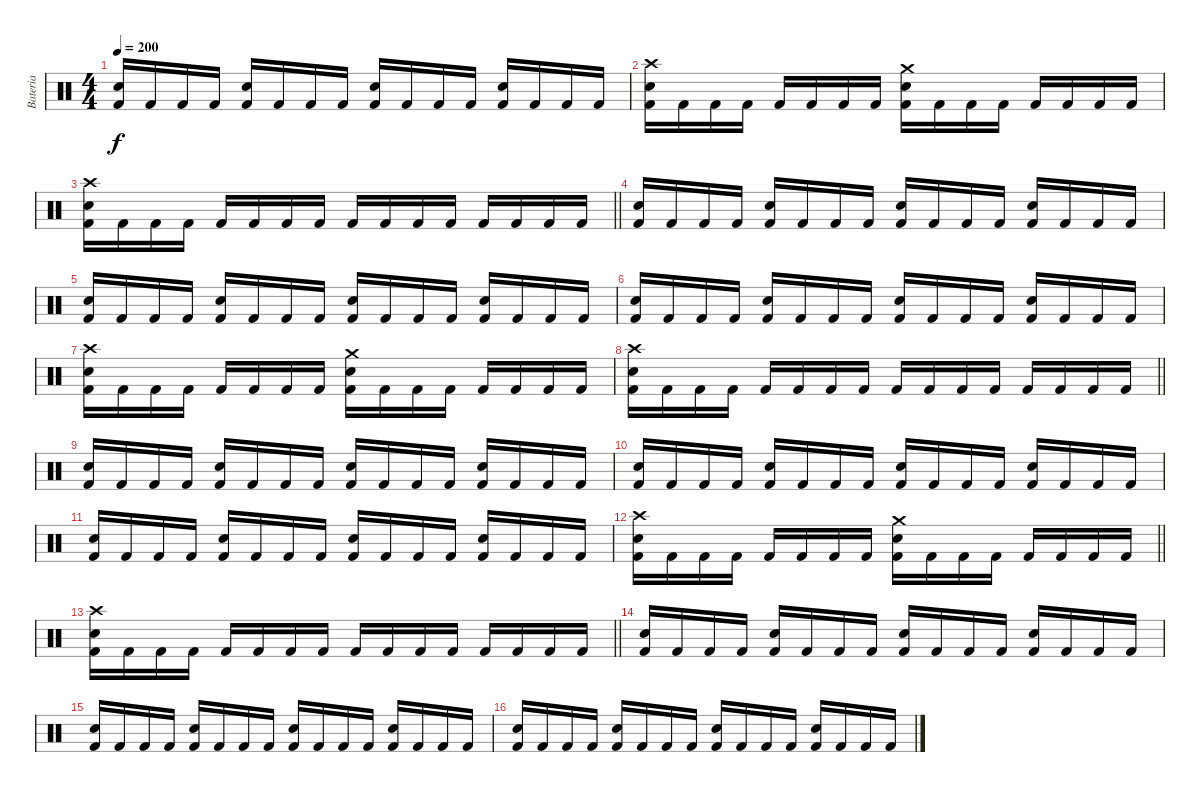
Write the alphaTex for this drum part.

\track ("Bateria" "Bateria") {instrument percussion}
\staff {score}
\articulation defaults
\ts (4 4)
\tempo 200
\clef neutral
\ks c
("Electric Snare (hit)" "Kick (hit) 2").16{dy f} "Kick (hit) 2".16 "Kick (hit) 2".16 "Kick (hit) 2".16 ("Electric Snare (hit)" "Kick (hit) 2").16 "Kick (hit) 2".16 "Kick (hit) 2".16 "Kick (hit) 2".16 ("Electric Snare (hit)" "Kick (hit) 2").16 "Kick (hit) 2".16 "Kick (hit) 2".16 "Kick (hit) 2".16 ("Electric Snare (hit)" "Kick (hit) 2").16 "Kick (hit) 2".16 "Kick (hit) 2".16 "Kick (hit) 2".16 |
("Crash high (hit)" "Electric Snare (hit)" "Kick (hit) 2").16 "Kick (hit) 2".16 "Kick (hit) 2".16 "Kick (hit) 2".16 "Kick (hit) 2".16 "Kick (hit) 2".16 "Kick (hit) 2".16 "Kick (hit) 2".16 ("Crash medium (hit)" "Electric Snare (hit)" "Kick (hit) 2").16 "Kick (hit) 2".16 "Kick (hit) 2".16 "Kick (hit) 2".16 "Kick (hit) 2".16 "Kick (hit) 2".16 "Kick (hit) 2".16 "Kick (hit) 2".16 |
\barLineRight lightlight
("Crash high (hit)" "Electric Snare (hit)" "Kick (hit) 2").16 "Kick (hit) 2".16 "Kick (hit) 2".16 "Kick (hit) 2".16 "Kick (hit) 2".16 "Kick (hit) 2".16 "Kick (hit) 2".16 "Kick (hit) 2".16 "Kick (hit) 2".16 "Kick (hit) 2".16 "Kick (hit) 2".16 "Kick (hit) 2".16 "Kick (hit) 2".16 "Kick (hit) 2".16 "Kick (hit) 2".16 "Kick (hit) 2".16 |
("Electric Snare (hit)" "Kick (hit) 2").16 "Kick (hit) 2".16{volume 8} "Kick (hit) 2".16 "Kick (hit) 2".16 ("Electric Snare (hit)" "Kick (hit) 2").16 "Kick (hit) 2".16 "Kick (hit) 2".16 "Kick (hit) 2".16 ("Electric Snare (hit)" "Kick (hit) 2").16 "Kick (hit) 2".16 "Kick (hit) 2".16 "Kick (hit) 2".16 ("Electric Snare (hit)" "Kick (hit) 2").16 "Kick (hit) 2".16 "Kick (hit) 2".16 "Kick (hit) 2".16 |
("Electric Snare (hit)" "Kick (hit) 2").16 "Kick (hit) 2".16 "Kick (hit) 2".16 "Kick (hit) 2".16 ("Electric Snare (hit)" "Kick (hit) 2").16 "Kick (hit) 2".16 "Kick (hit) 2".16 "Kick (hit) 2".16 ("Electric Snare (hit)" "Kick (hit) 2").16 "Kick (hit) 2".16 "Kick (hit) 2".16 "Kick (hit) 2".16 ("Electric Snare (hit)" "Kick (hit) 2").16 "Kick (hit) 2".16 "Kick (hit) 2".16 "Kick (hit) 2".16 |
("Electric Snare (hit)" "Kick (hit) 2").16 "Kick (hit) 2".16 "Kick (hit) 2".16 "Kick (hit) 2".16 ("Electric Snare (hit)" "Kick (hit) 2").16 "Kick (hit) 2".16 "Kick (hit) 2".16 "Kick (hit) 2".16 ("Electric Snare (hit)" "Kick (hit) 2").16 "Kick (hit) 2".16 "Kick (hit) 2".16 "Kick (hit) 2".16 ("Electric Snare (hit)" "Kick (hit) 2").16 "Kick (hit) 2".16 "Kick (hit) 2".16 "Kick (hit) 2".16 |
("Crash high (hit)" "Electric Snare (hit)" "Kick (hit) 2").16 "Kick (hit) 2".16 "Kick (hit) 2".16 "Kick (hit) 2".16 "Kick (hit) 2".16 "Kick (hit) 2".16 "Kick (hit) 2".16 "Kick (hit) 2".16 ("Crash medium (hit)" "Electric Snare (hit)" "Kick (hit) 2").16 "Kick (hit) 2".16 "Kick (hit) 2".16 "Kick (hit) 2".16 "Kick (hit) 2".16 "Kick (hit) 2".16 "Kick (hit) 2".16 "Kick (hit) 2".16 |
\barLineRight lightlight
("Crash high (hit)" "Electric Snare (hit)" "Kick (hit) 2").16 "Kick (hit) 2".16 "Kick (hit) 2".16{volume 6} "Kick (hit) 2".16 "Kick (hit) 2".16 "Kick (hit) 2".16 "Kick (hit) 2".16 "Kick (hit) 2".16 "Kick (hit) 2".16 "Kick (hit) 2".16 "Kick (hit) 2".16 "Kick (hit) 2".16 "Kick (hit) 2".16 "Kick (hit) 2".16 "Kick (hit) 2".16 "Kick (hit) 2".16 |
("Electric Snare (hit)" "Kick (hit) 2").16 "Kick (hit) 2".16 "Kick (hit) 2".16 "Kick (hit) 2".16 ("Electric Snare (hit)" "Kick (hit) 2").16 "Kick (hit) 2".16 "Kick (hit) 2".16 "Kick (hit) 2".16 ("Electric Snare (hit)" "Kick (hit) 2").16 "Kick (hit) 2".16 "Kick (hit) 2".16 "Kick (hit) 2".16 ("Electric Snare (hit)" "Kick (hit) 2").16 "Kick (hit) 2".16 "Kick (hit) 2".16 "Kick (hit) 2".16 |
("Electric Snare (hit)" "Kick (hit) 2").16 "Kick (hit) 2".16 "Kick (hit) 2".16 "Kick (hit) 2".16 ("Electric Snare (hit)" "Kick (hit) 2").16 "Kick (hit) 2".16 "Kick (hit) 2".16 "Kick (hit) 2".16 ("Electric Snare (hit)" "Kick (hit) 2").16 "Kick (hit) 2".16 "Kick (hit) 2".16 "Kick (hit) 2".16 ("Electric Snare (hit)" "Kick (hit) 2").16 "Kick (hit) 2".16 "Kick (hit) 2".16 "Kick (hit) 2".16 |
("Electric Snare (hit)" "Kick (hit) 2").16 "Kick (hit) 2".16 "Kick (hit) 2".16 "Kick (hit) 2".16 ("Electric Snare (hit)" "Kick (hit) 2").16 "Kick (hit) 2".16 "Kick (hit) 2".16 "Kick (hit) 2".16 ("Electric Snare (hit)" "Kick (hit) 2").16 "Kick (hit) 2".16 "Kick (hit) 2".16 "Kick (hit) 2".16 ("Electric Snare (hit)" "Kick (hit) 2").16 "Kick (hit) 2".16 "Kick (hit) 2".16 "Kick (hit) 2".16 |
\barLineRight lightlight
("Crash high (hit)" "Electric Snare (hit)" "Kick (hit) 2").16 "Kick (hit) 2".16 "Kick (hit) 2".16 "Kick (hit) 2".16 "Kick (hit) 2".16 "Kick (hit) 2".16 "Kick (hit) 2".16 "Kick (hit) 2".16 ("Crash medium (hit)" "Electric Snare (hit)" "Kick (hit) 2").16 "Kick (hit) 2".16 "Kick (hit) 2".16 "Kick (hit) 2".16 "Kick (hit) 2".16 "Kick (hit) 2".16 "Kick (hit) 2".16 "Kick (hit) 2".16 |
\barLineRight lightlight
("Crash high (hit)" "Electric Snare (hit)" "Kick (hit) 2").16 "Kick (hit) 2".16 "Kick (hit) 2".16 "Kick (hit) 2".16 "Kick (hit) 2".16 "Kick (hit) 2".16 "Kick (hit) 2".16 "Kick (hit) 2".16 "Kick (hit) 2".16 "Kick (hit) 2".16 "Kick (hit) 2".16 "Kick (hit) 2".16 "Kick (hit) 2".16 "Kick (hit) 2".16 "Kick (hit) 2".16 "Kick (hit) 2".16 |
("Electric Snare (hit)" "Kick (hit) 2").16{volume 4} "Kick (hit) 2".16 "Kick (hit) 2".16 "Kick (hit) 2".16 ("Electric Snare (hit)" "Kick (hit) 2").16 "Kick (hit) 2".16 "Kick (hit) 2".16 "Kick (hit) 2".16 ("Electric Snare (hit)" "Kick (hit) 2").16 "Kick (hit) 2".16 "Kick (hit) 2".16 "Kick (hit) 2".16 ("Electric Snare (hit)" "Kick (hit) 2").16 "Kick (hit) 2".16 "Kick (hit) 2".16 "Kick (hit) 2".16 |
("Electric Snare (hit)" "Kick (hit) 2").16 "Kick (hit) 2".16 "Kick (hit) 2".16 "Kick (hit) 2".16 ("Electric Snare (hit)" "Kick (hit) 2").16 "Kick (hit) 2".16 "Kick (hit) 2".16 "Kick (hit) 2".16 ("Electric Snare (hit)" "Kick (hit) 2").16 "Kick (hit) 2".16 "Kick (hit) 2".16 "Kick (hit) 2".16 ("Electric Snare (hit)" "Kick (hit) 2").16 "Kick (hit) 2".16 "Kick (hit) 2".16 "Kick (hit) 2".16 |
("Electric Snare (hit)" "Kick (hit) 2").16 "Kick (hit) 2".16 "Kick (hit) 2".16 "Kick (hit) 2".16 ("Electric Snare (hit)" "Kick (hit) 2").16 "Kick (hit) 2".16 "Kick (hit) 2".16 "Kick (hit) 2".16 ("Electric Snare (hit)" "Kick (hit) 2").16 "Kick (hit) 2".16 "Kick (hit) 2".16 "Kick (hit) 2".16 ("Electric Snare (hit)" "Kick (hit) 2").16 "Kick (hit) 2".16 "Kick (hit) 2".16 "Kick (hit) 2".16
